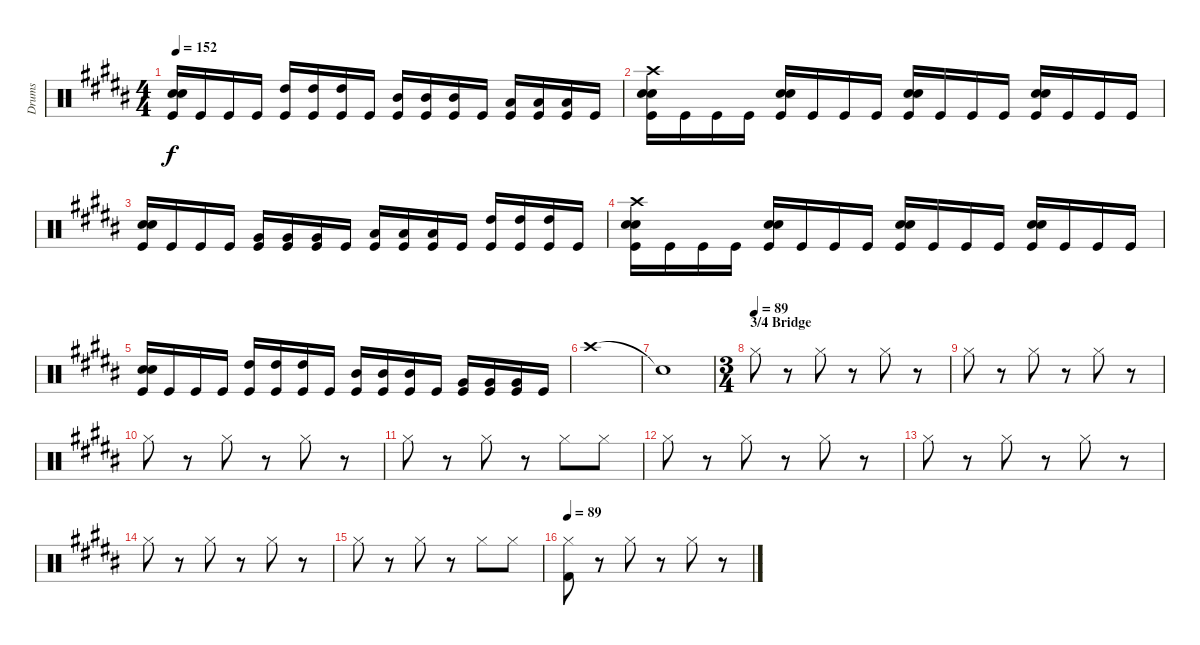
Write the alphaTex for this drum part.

\track ("Drums" "Drums") {instrument percussion}
\staff {score}
\articulation defaults
\ts (4 4)
\tempo 152
\clef neutral
\ks b
("Snare (hit) 2" "Electric Snare (hit)" "Kick (hit)").16{dy f} "Kick (hit)".16 "Kick (hit)".16 "Kick (hit)".16 ("High Tom (hit)" "Kick (hit)").16 ("High Tom (hit)" "Kick (hit)").16 ("High Tom (hit)" "Kick (hit)").16 "Kick (hit)".16 ("Mid Tom (hit)" "Kick (hit)").16 ("Mid Tom (hit)" "Kick (hit)").16 ("Mid Tom (hit)" "Kick (hit)").16 "Kick (hit)".16 ("Low Tom (hit)" "Kick (hit)").16 ("Low Tom (hit)" "Kick (hit)").16 ("Low Tom (hit)" "Kick (hit)").16 "Kick (hit)".16 |
("Crash high (hit)" "Snare (hit) 2" "Electric Snare (hit)" "Kick (hit)").16 "Kick (hit)".16 "Kick (hit)".16 "Kick (hit)".16 ("Snare (hit) 2" "Electric Snare (hit)" "Kick (hit)").16 "Kick (hit)".16 "Kick (hit)".16 "Kick (hit)".16 ("Snare (hit) 2" "Electric Snare (hit)" "Kick (hit)").16 "Kick (hit)".16 "Kick (hit)".16 "Kick (hit)".16 ("Snare (hit) 2" "Electric Snare (hit)" "Kick (hit)").16 "Kick (hit)".16 "Kick (hit)".16 "Kick (hit)".16 |
("Snare (hit) 2" "Electric Snare (hit)" "Kick (hit)").16 "Kick (hit)".16 "Kick (hit)".16 "Kick (hit)".16 ("Very Low Tom (hit)" "Kick (hit)").16 ("Very Low Tom (hit)" "Kick (hit)").16 ("Very Low Tom (hit)" "Kick (hit)").16 "Kick (hit)".16 ("Low Tom (hit)" "Kick (hit)").16 ("Low Tom (hit)" "Kick (hit)").16 ("Low Tom (hit)" "Kick (hit)").16 "Kick (hit)".16 ("High Tom (hit)" "Kick (hit)").16 ("High Tom (hit)" "Kick (hit)").16 ("High Tom (hit)" "Kick (hit)").16 "Kick (hit)".16 |
("Crash high (hit)" "Snare (hit) 2" "Electric Snare (hit)" "Kick (hit)").16 "Kick (hit)".16 "Kick (hit)".16 "Kick (hit)".16 ("Snare (hit) 2" "Electric Snare (hit)" "Kick (hit)").16 "Kick (hit)".16 "Kick (hit)".16 "Kick (hit)".16 ("Snare (hit) 2" "Electric Snare (hit)" "Kick (hit)").16 "Kick (hit)".16 "Kick (hit)".16 "Kick (hit)".16 ("Snare (hit) 2" "Electric Snare (hit)" "Kick (hit)").16 "Kick (hit)".16 "Kick (hit)".16 "Kick (hit)".16 |
("Snare (hit) 2" "Electric Snare (hit)" "Kick (hit)").16 "Kick (hit)".16 "Kick (hit)".16 "Kick (hit)".16 ("High Tom (hit)" "Kick (hit)").16 ("High Tom (hit)" "Kick (hit)").16 ("High Tom (hit)" "Kick (hit)").16 "Kick (hit)".16 ("Mid Tom (hit)" "Kick (hit)").16 ("Mid Tom (hit)" "Kick (hit)").16 ("Mid Tom (hit)" "Kick (hit)").16 "Kick (hit)".16 ("Very Low Tom (hit)" "Kick (hit)").16 ("Very Low Tom (hit)" "Kick (hit)").16 ("Very Low Tom (hit)" "Kick (hit)").16 "Kick (hit)".16 |
"Crash high (hit)".1 |
"Snare (hit)"{t}.1{volume 13} |
\ts (3 4)
\section ("" "3/4 Bridge")
\tempo (89)
"Hi-Hat (closed)".8{volume 16} r.8 "Hi-Hat (closed)".8 r.8 "Hi-Hat (closed)".8 r.8 |
"Hi-Hat (closed)".8 r.8 "Hi-Hat (closed)".8 r.8 "Hi-Hat (closed)".8 r.8 |
"Hi-Hat (closed)".8 r.8 "Hi-Hat (closed)".8 r.8 "Hi-Hat (closed)".8 r.8 |
"Hi-Hat (closed)".8 r.8 "Hi-Hat (closed)".8 r.8 "Hi-Hat (closed)".8 "Hi-Hat (closed)".8 |
"Hi-Hat (closed)".8 r.8 "Hi-Hat (closed)".8 r.8 "Hi-Hat (closed)".8 r.8 |
"Hi-Hat (closed)".8 r.8 "Hi-Hat (closed)".8 r.8 "Hi-Hat (closed)".8 r.8 |
"Hi-Hat (closed)".8 r.8 "Hi-Hat (closed)".8 r.8 "Hi-Hat (closed)".8 r.8 |
"Hi-Hat (closed)".8 r.8 "Hi-Hat (closed)".8 r.8 "Hi-Hat (closed)".8 "Hi-Hat (closed)".8 |
\tempo 89
("Hi-Hat (closed)" "Kick (hit) 2").8 r.8 "Hi-Hat (closed)".8 r.8 "Hi-Hat (closed)".8 r.8
